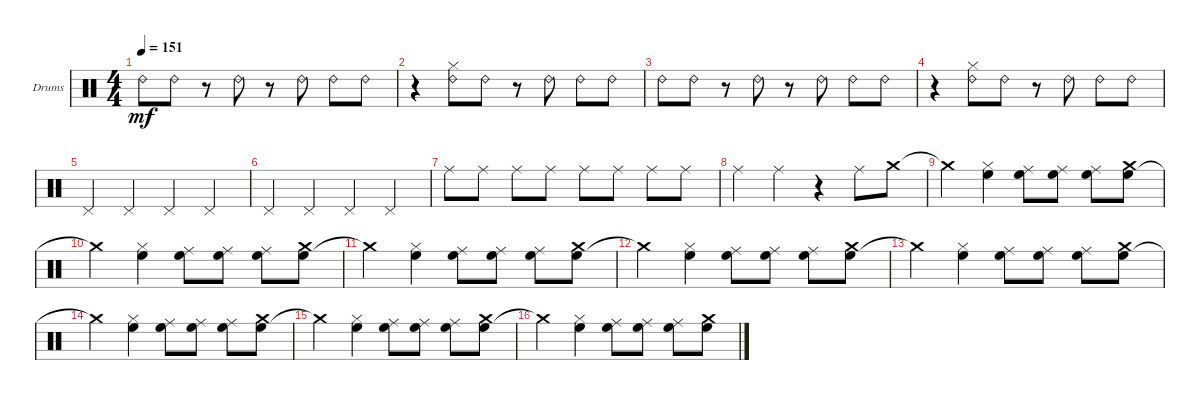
\bracketExtendMode groupsimilarinstruments
\firstSystemTrackNameOrientation horizontal
\otherSystemsTrackNameOrientation horizontal
\track ("Drumkit" "Drums") {instrument percussion}
\staff {score}
\articulation defaults
\ts (4 4)
\tempo 151
\clef neutral
\ks aminor "Ride (bell) 2".8{dy mf} "Ride (bell) 2".8
r.8 "Ride (bell) 2".8 r.8 "Ride (bell) 2".8 "Ride (bell) 2".8 "Ride (bell) 2".8 |
r.4 ("Ride (bell) 2" "Hi-Hat (closed)").8 "Ride (bell) 2".8 r.8 "Ride (bell) 2".8 "Ride (bell) 2".8 "Ride (bell) 2".8 |
"Ride (bell) 2".8 "Ride (bell) 2".8 r.8 "Ride (bell) 2".8 r.8 "Ride (bell) 2".8 "Ride (bell) 2".8 "Ride (bell) 2".8 |
r.4 ("Ride (bell) 2" "Hi-Hat (closed)").8 "Ride (bell) 2".8 r.8 "Ride (bell) 2".8 "Ride (bell) 2".8 "Ride (bell) 2".8 |
"Pedal Hi-Hat (hit)".4 "Pedal Hi-Hat (hit)".4 "Pedal Hi-Hat (hit)".4 "Pedal Hi-Hat (hit)".4 |
"Pedal Hi-Hat (hit)".4 "Pedal Hi-Hat (hit)".4 "Pedal Hi-Hat (hit)".4 "Pedal Hi-Hat (hit)".4 |
"Ride (middle)".8 "Ride (middle)".8 "Ride (middle)".8 "Ride (middle)".8 "Ride (middle)".8 "Ride (middle)".8 "Ride (middle)".8 "Ride (middle)".8 |
"Ride (middle)".4 "Ride (middle)".4 r.4 "Ride (middle)".8 "Crash medium (hit)".8 |
"Crash medium (hit)"{t}.4 ("High Floor Tom (hit)" "Hi-Hat (closed)").4 ("High Floor Tom (hit)" "Ride (middle)").8 ("High Floor Tom (hit)" "Ride (middle)").8 ("High Floor Tom (hit)" "Ride (middle)").8 ("High Floor Tom (hit)" "Crash medium (hit)").8 |
"Crash medium (hit)"{t}.4 ("High Floor Tom (hit)" "Hi-Hat (closed)").4 ("High Floor Tom (hit)" "Ride (middle)").8 ("High Floor Tom (hit)" "Ride (middle)").8 ("High Floor Tom (hit)" "Ride (middle)").8 ("High Floor Tom (hit)" "Crash medium (hit)").8 |
"Crash medium (hit)"{t}.4 ("High Floor Tom (hit)" "Hi-Hat (closed)").4 ("High Floor Tom (hit)" "Ride (middle)").8 ("High Floor Tom (hit)" "Ride (middle)").8 ("High Floor Tom (hit)" "Ride (middle)").8 ("High Floor Tom (hit)" "Crash medium (hit)").8 |
"Crash medium (hit)"{t}.4 ("High Floor Tom (hit)" "Hi-Hat (closed)").4 ("High Floor Tom (hit)" "Ride (middle)").8 ("High Floor Tom (hit)" "Ride (middle)").8 ("High Floor Tom (hit)" "Ride (middle)").8 ("High Floor Tom (hit)" "Crash medium (hit)").8 |
"Crash medium (hit)"{t}.4 ("High Floor Tom (hit)" "Hi-Hat (closed)").4 ("High Floor Tom (hit)" "Ride (middle)").8 ("High Floor Tom (hit)" "Ride (middle)").8 ("High Floor Tom (hit)" "Ride (middle)").8 ("High Floor Tom (hit)" "Crash medium (hit)").8 |
"Crash medium (hit)"{t}.4 ("High Floor Tom (hit)" "Hi-Hat (closed)").4 ("High Floor Tom (hit)" "Ride (middle)").8 ("High Floor Tom (hit)" "Ride (middle)").8 ("High Floor Tom (hit)" "Ride (middle)").8 ("High Floor Tom (hit)" "Crash medium (hit)").8 |
"Crash medium (hit)"{t}.4 ("High Floor Tom (hit)" "Hi-Hat (closed)").4 ("High Floor Tom (hit)" "Ride (middle)").8 ("High Floor Tom (hit)" "Ride (middle)").8 ("High Floor Tom (hit)" "Ride (middle)").8 ("High Floor Tom (hit)" "Crash medium (hit)").8 |
"Crash medium (hit)"{t}.4 ("High Floor Tom (hit)" "Hi-Hat (closed)").4 ("High Floor Tom (hit)" "Ride (middle)").8 ("High Floor Tom (hit)" "Ride (middle)").8 ("High Floor Tom (hit)" "Ride (middle)").8 ("High Floor Tom (hit)" "Crash medium (hit)").8
